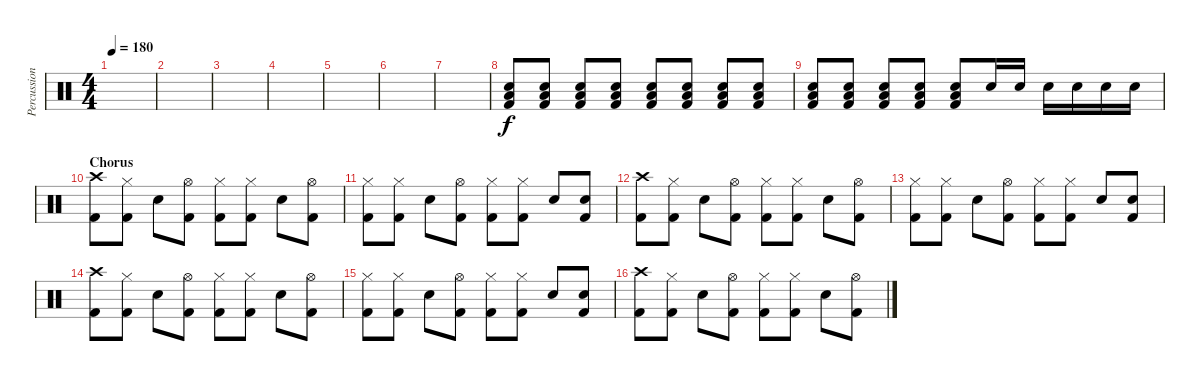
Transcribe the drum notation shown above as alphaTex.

\track ("Percussion" "Percussion") {instrument percussion}
\staff {score}
\articulation defaults
\ts (4 4)
\tempo 180
\clef neutral
\ks c
|
|
|
|
|
|
|
("Low Floor Tom (hit)" "Electric Snare (hit)" "Kick (hit) 2").8{volume 9} ("Low Floor Tom (hit)" "Electric Snare (hit)" "Kick (hit) 2").8{volume 12} ("Low Floor Tom (hit)" "Electric Snare (hit)" "Kick (hit) 2").8 ("Low Floor Tom (hit)" "Electric Snare (hit)" "Kick (hit) 2").8 ("Low Floor Tom (hit)" "Electric Snare (hit)" "Kick (hit) 2").8 ("Low Floor Tom (hit)" "Electric Snare (hit)" "Kick (hit) 2").8 ("Low Floor Tom (hit)" "Electric Snare (hit)" "Kick (hit) 2").8 ("Low Floor Tom (hit)" "Electric Snare (hit)" "Kick (hit) 2").8 |
("Low Floor Tom (hit)" "Electric Snare (hit)" "Kick (hit) 2").8 ("Low Floor Tom (hit)" "Electric Snare (hit)" "Kick (hit) 2").8{volume 16} ("Low Floor Tom (hit)" "Electric Snare (hit)" "Kick (hit) 2").8 ("Low Floor Tom (hit)" "Electric Snare (hit)" "Kick (hit) 2").8 ("Low Floor Tom (hit)" "Electric Snare (hit)" "Kick (hit) 2").8 "Electric Snare (hit)".16{volume 13} "Electric Snare (hit)".16 "Electric Snare (hit)".16 "Electric Snare (hit)".16 "Electric Snare (hit)".16 "Electric Snare (hit)".16 |
\section ("" "Chorus")
("Crash high (hit)" "Kick (hit) 2").8 ("Hi-Hat (closed)" "Kick (hit) 2").8 "Electric Snare (hit)".8 ("Hi-Hat (open)" "Kick (hit) 2").8 ("Hi-Hat (closed)" "Kick (hit) 2").8 ("Hi-Hat (closed)" "Kick (hit) 2").8 "Electric Snare (hit)".8 ("Hi-Hat (open)" "Kick (hit) 2").8 |
("Hi-Hat (closed)" "Kick (hit) 2").8 ("Hi-Hat (closed)" "Kick (hit) 2").8 "Electric Snare (hit)".8 ("Hi-Hat (open)" "Kick (hit) 2").8 ("Hi-Hat (closed)" "Kick (hit) 2").8 ("Hi-Hat (closed)" "Kick (hit) 2").8 "Electric Snare (hit)".8 ("Electric Snare (hit)" "Kick (hit) 2").8 |
("Crash high (hit)" "Kick (hit) 2").8 ("Hi-Hat (closed)" "Kick (hit) 2").8 "Electric Snare (hit)".8 ("Hi-Hat (open)" "Kick (hit) 2").8 ("Hi-Hat (closed)" "Kick (hit) 2").8 ("Hi-Hat (closed)" "Kick (hit) 2").8 "Electric Snare (hit)".8 ("Hi-Hat (open)" "Kick (hit) 2").8 |
("Hi-Hat (closed)" "Kick (hit) 2").8 ("Hi-Hat (closed)" "Kick (hit) 2").8 "Electric Snare (hit)".8 ("Hi-Hat (open)" "Kick (hit) 2").8 ("Hi-Hat (closed)" "Kick (hit) 2").8 ("Hi-Hat (closed)" "Kick (hit) 2").8 "Electric Snare (hit)".8 ("Electric Snare (hit)" "Kick (hit) 2").8 |
("Crash high (hit)" "Kick (hit) 2").8 ("Hi-Hat (closed)" "Kick (hit) 2").8 "Electric Snare (hit)".8 ("Hi-Hat (open)" "Kick (hit) 2").8 ("Hi-Hat (closed)" "Kick (hit) 2").8 ("Hi-Hat (closed)" "Kick (hit) 2").8 "Electric Snare (hit)".8 ("Hi-Hat (open)" "Kick (hit) 2").8 |
("Hi-Hat (closed)" "Kick (hit) 2").8 ("Hi-Hat (closed)" "Kick (hit) 2").8 "Electric Snare (hit)".8 ("Hi-Hat (open)" "Kick (hit) 2").8 ("Hi-Hat (closed)" "Kick (hit) 2").8 ("Hi-Hat (closed)" "Kick (hit) 2").8 "Electric Snare (hit)".8 ("Electric Snare (hit)" "Kick (hit) 2").8 |
("Crash high (hit)" "Kick (hit) 2").8 ("Hi-Hat (closed)" "Kick (hit) 2").8 "Electric Snare (hit)".8 ("Hi-Hat (open)" "Kick (hit) 2").8 ("Hi-Hat (closed)" "Kick (hit) 2").8 ("Hi-Hat (closed)" "Kick (hit) 2").8 "Electric Snare (hit)".8 ("Hi-Hat (open)" "Kick (hit) 2").8
